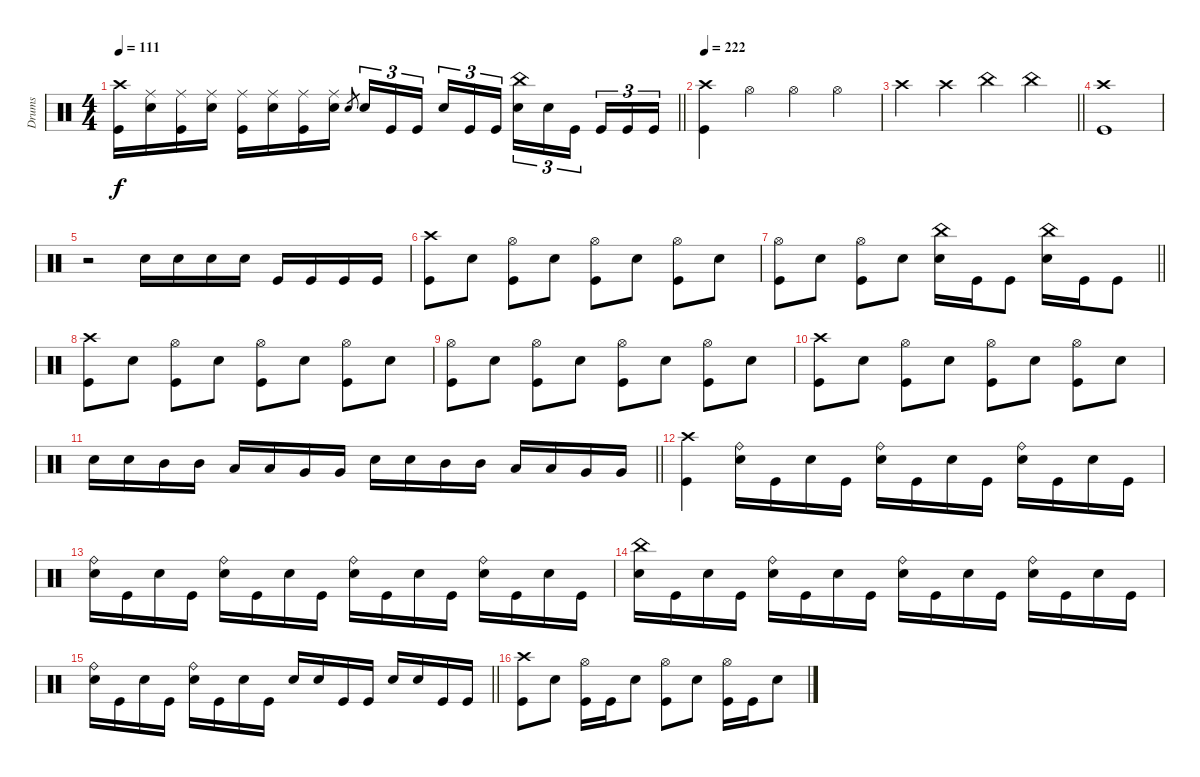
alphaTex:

\track ("Drums" "Drums") {instrument percussion}
\staff
\articulation defaults
\ts (4 4)
\tempo 111
\clef neutral
\barLineRight lightlight
\ks c
("Crash high (hit)" "Kick (hit)").16{dy f} ("Ride (middle)" "Electric Snare (hit)").16 ("Ride (middle)" "Kick (hit)").16 ("Ride (middle)" "Electric Snare (hit)").16 ("Ride (middle)" "Kick (hit)").16 ("Ride (middle)" "Electric Snare (hit)").16 ("Ride (middle)" "Kick (hit)").16 ("Ride (middle)" "Electric Snare (hit)").16 "Electric Snare (hit)".8{gr} "Electric Snare (hit)".16{tu (3 2)} "Kick (hit)".16{tu (3 2)} "Kick (hit)".16{tu (3 2) beam splitsecondary} "Electric Snare (hit)".16{tu (3 2)} "Kick (hit)".16{tu (3 2)} "Kick (hit)".16{tu (3 2)} ("China (hit)" "Electric Snare (hit)").16{tu (3 2)} "Electric Snare (hit)".16{tu (3 2)} "Kick (hit)".16{tu (3 2) beam splitsecondary} "Kick (hit)".16{tu (3 2)} "Kick (hit)".16{tu (3 2)} "Kick (hit)".16{tu (3 2)} |
\tempo 222
("Crash high (hit)" "Kick (hit)").4 "Hi-Hat (open)".4 "Hi-Hat (open)".4 "Hi-Hat (open)".4 |
\barLineRight lightlight "Crash high (hit)".4 "Crash high (hit)".4 "China (hit)".4 "China (hit)".4
|
\section ("" "")
("Crash high (hit)" "Kick (hit)").1 |
r.2 "Electric Snare (hit)".16 "Electric Snare (hit)".16 "Electric Snare (hit)".16 "Electric Snare (hit)".16 "Kick (hit)".16 "Kick (hit)".16 "Kick (hit)".16 "Kick (hit)".16 |
("Crash high (hit)" "Kick (hit)").8 "Electric Snare (hit)".8 ("Hi-Hat (open)" "Kick (hit)").8 "Electric Snare (hit)".8 ("Hi-Hat (open)" "Kick (hit)").8 "Electric Snare (hit)".8 ("Hi-Hat (open)" "Kick (hit)").8 "Electric Snare (hit)".8 |
\barLineRight lightlight
("Hi-Hat (open)" "Kick (hit)").8 "Electric Snare (hit)".8 ("Hi-Hat (open)" "Kick (hit)").8 "Electric Snare (hit)".8 ("China (hit)" "Electric Snare (hit)").16 "Kick (hit)".16 "Kick (hit)".8 ("China (hit)" "Electric Snare (hit)").16 "Kick (hit)".16 "Kick (hit)".8 |
("Crash high (hit)" "Kick (hit)").8 "Electric Snare (hit)".8 ("Hi-Hat (open)" "Kick (hit)").8 "Electric Snare (hit)".8 ("Hi-Hat (open)" "Kick (hit)").8 "Electric Snare (hit)".8 ("Hi-Hat (open)" "Kick (hit)").8 "Electric Snare (hit)".8 |
("Hi-Hat (open)" "Kick (hit)").8 "Electric Snare (hit)".8 ("Hi-Hat (open)" "Kick (hit)").8 "Electric Snare (hit)".8 ("Hi-Hat (open)" "Kick (hit)").8 "Electric Snare (hit)".8 ("Hi-Hat (open)" "Kick (hit)").8 "Electric Snare (hit)".8 |
("Crash high (hit)" "Kick (hit)").8 "Electric Snare (hit)".8 ("Hi-Hat (open)" "Kick (hit)").8 "Electric Snare (hit)".8 ("Hi-Hat (open)" "Kick (hit)").8 "Electric Snare (hit)".8 ("Hi-Hat (open)" "Kick (hit)").8 "Electric Snare (hit)".8 |
\barLineRight lightlight "Electric Snare (hit)".16 "Electric Snare (hit)".16 "Mid Tom (hit)".16 "Mid Tom (hit)".16 "Low Tom (hit)".16 "Low Tom (hit)".16 "Very Low Tom (hit)".16 "Very Low Tom (hit)".16 "Electric Snare (hit)".16 "Electric Snare (hit)".16 "Mid Tom (hit)".16 "Mid Tom (hit)".16 "Low Tom (hit)".16 "Low Tom (hit)".16 "Very Low Tom (hit)".16 "Very Low Tom (hit)".16
|
("Crash high (hit)" "Kick (hit)").4 ("Ride (bell)" "Electric Snare (hit)").16 "Kick (hit)".16 "Electric Snare (hit)".16 "Kick (hit)".16 ("Ride (bell)" "Electric Snare (hit)").16 "Kick (hit)".16 "Electric Snare (hit)".16 "Kick (hit)".16 ("Ride (bell)" "Electric Snare (hit)").16 "Kick (hit)".16 "Electric Snare (hit)".16 "Kick (hit)".16 |
("Ride (bell)" "Electric Snare (hit)").16 "Kick (hit)".16 "Electric Snare (hit)".16 "Kick (hit)".16 ("Ride (bell)" "Electric Snare (hit)").16 "Kick (hit)".16 "Electric Snare (hit)".16 "Kick (hit)".16 ("Ride (bell)" "Electric Snare (hit)").16 "Kick (hit)".16 "Electric Snare (hit)".16 "Kick (hit)".16 ("Ride (bell)" "Electric Snare (hit)").16 "Kick (hit)".16 "Electric Snare (hit)".16 "Kick (hit)".16 |
("China (hit)" "Electric Snare (hit)").16 "Kick (hit)".16 "Electric Snare (hit)".16 "Kick (hit)".16 ("Ride (bell)" "Electric Snare (hit)").16 "Kick (hit)".16 "Electric Snare (hit)".16 "Kick (hit)".16 ("Ride (bell)" "Electric Snare (hit)").16 "Kick (hit)".16 "Electric Snare (hit)".16 "Kick (hit)".16 ("Ride (bell)" "Electric Snare (hit)").16 "Kick (hit)".16 "Electric Snare (hit)".16 "Kick (hit)".16 |
\barLineRight lightlight
("Ride (bell)" "Electric Snare (hit)").16 "Kick (hit)".16 "Electric Snare (hit)".16 "Kick (hit)".16 ("Ride (bell)" "Electric Snare (hit)").16 "Kick (hit)".16 "Electric Snare (hit)".16 "Kick (hit)".16 "Electric Snare (hit)".16 "Electric Snare (hit)".16 "Kick (hit)".16 "Kick (hit)".16 "Electric Snare (hit)".16 "Electric Snare (hit)".16 "Kick (hit)".16 "Kick (hit)".16 |
("Crash high (hit)" "Kick (hit)").8 "Electric Snare (hit)".8 ("Hi-Hat (open)" "Kick (hit)").16 "Kick (hit)".16 "Electric Snare (hit)".8 ("Hi-Hat (open)" "Kick (hit)").8 "Electric Snare (hit)".8 ("Hi-Hat (open)" "Kick (hit)").16 "Kick (hit)".16 "Electric Snare (hit)".8
